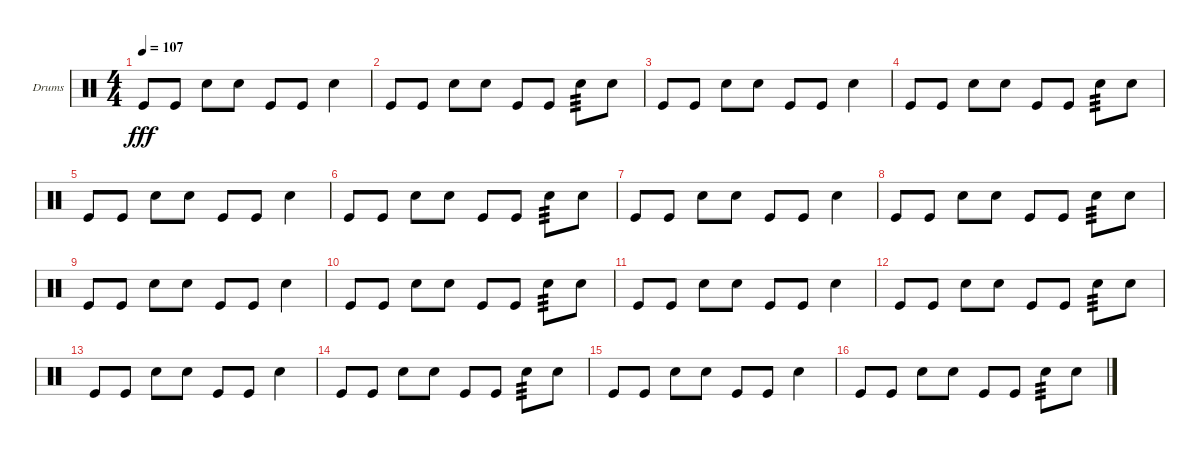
\defaultSystemsLayout 4
\bracketExtendMode groupsimilarinstruments
\firstSystemTrackNameOrientation horizontal
\otherSystemsTrackNameOrientation horizontal
\track ("Helders" "Drums") {instrument percussion}
\staff {score}
\articulation defaults
\ts (4 4)
\tempo 107
\clef neutral
\ks c "Kick (hit)".8{dy fff} "Kick (hit)".8 "Snare (hit) 2".8 "Snare (hit) 2".8 "Kick (hit)".8 "Kick (hit)".8 "Snare (hit) 2".4
|
"Kick (hit)".8 "Kick (hit)".8 "Snare (hit) 2".8 "Snare (hit) 2".8 "Kick (hit)".8 "Kick (hit)".8 "Snare (hit) 2".8{tp 3} "Snare (hit) 2".8 |
"Kick (hit)".8 "Kick (hit)".8 "Snare (hit) 2".8 "Snare (hit) 2".8 "Kick (hit)".8 "Kick (hit)".8 "Snare (hit) 2".4 |
"Kick (hit)".8 "Kick (hit)".8 "Snare (hit) 2".8 "Snare (hit) 2".8 "Kick (hit)".8 "Kick (hit)".8 "Snare (hit) 2".8{tp 3} "Snare (hit) 2".8 |
"Kick (hit)".8 "Kick (hit)".8 "Snare (hit) 2".8 "Snare (hit) 2".8 "Kick (hit)".8 "Kick (hit)".8 "Snare (hit) 2".4 |
"Kick (hit)".8 "Kick (hit)".8 "Snare (hit) 2".8 "Snare (hit) 2".8 "Kick (hit)".8 "Kick (hit)".8 "Snare (hit) 2".8{tp 3} "Snare (hit) 2".8 |
"Kick (hit)".8 "Kick (hit)".8 "Snare (hit) 2".8 "Snare (hit) 2".8 "Kick (hit)".8 "Kick (hit)".8 "Snare (hit) 2".4 |
"Kick (hit)".8 "Kick (hit)".8 "Snare (hit) 2".8 "Snare (hit) 2".8 "Kick (hit)".8 "Kick (hit)".8 "Snare (hit) 2".8{tp 3} "Snare (hit) 2".8 |
"Kick (hit)".8 "Kick (hit)".8 "Snare (hit) 2".8 "Snare (hit) 2".8 "Kick (hit)".8 "Kick (hit)".8 "Snare (hit) 2".4 |
"Kick (hit)".8 "Kick (hit)".8 "Snare (hit) 2".8 "Snare (hit) 2".8 "Kick (hit)".8 "Kick (hit)".8 "Snare (hit) 2".8{tp 3} "Snare (hit) 2".8 |
"Kick (hit)".8 "Kick (hit)".8 "Snare (hit) 2".8 "Snare (hit) 2".8 "Kick (hit)".8 "Kick (hit)".8 "Snare (hit) 2".4 |
"Kick (hit)".8 "Kick (hit)".8 "Snare (hit) 2".8 "Snare (hit) 2".8 "Kick (hit)".8 "Kick (hit)".8 "Snare (hit) 2".8{tp 3} "Snare (hit) 2".8 |
"Kick (hit)".8 "Kick (hit)".8 "Snare (hit) 2".8 "Snare (hit) 2".8 "Kick (hit)".8 "Kick (hit)".8 "Snare (hit) 2".4 |
"Kick (hit)".8 "Kick (hit)".8 "Snare (hit) 2".8 "Snare (hit) 2".8 "Kick (hit)".8 "Kick (hit)".8 "Snare (hit) 2".8{tp 3} "Snare (hit) 2".8 |
"Kick (hit)".8 "Kick (hit)".8 "Snare (hit) 2".8 "Snare (hit) 2".8 "Kick (hit)".8 "Kick (hit)".8 "Snare (hit) 2".4 |
"Kick (hit)".8 "Kick (hit)".8 "Snare (hit) 2".8 "Snare (hit) 2".8 "Kick (hit)".8 "Kick (hit)".8 "Snare (hit) 2".8{tp 3} "Snare (hit) 2".8
